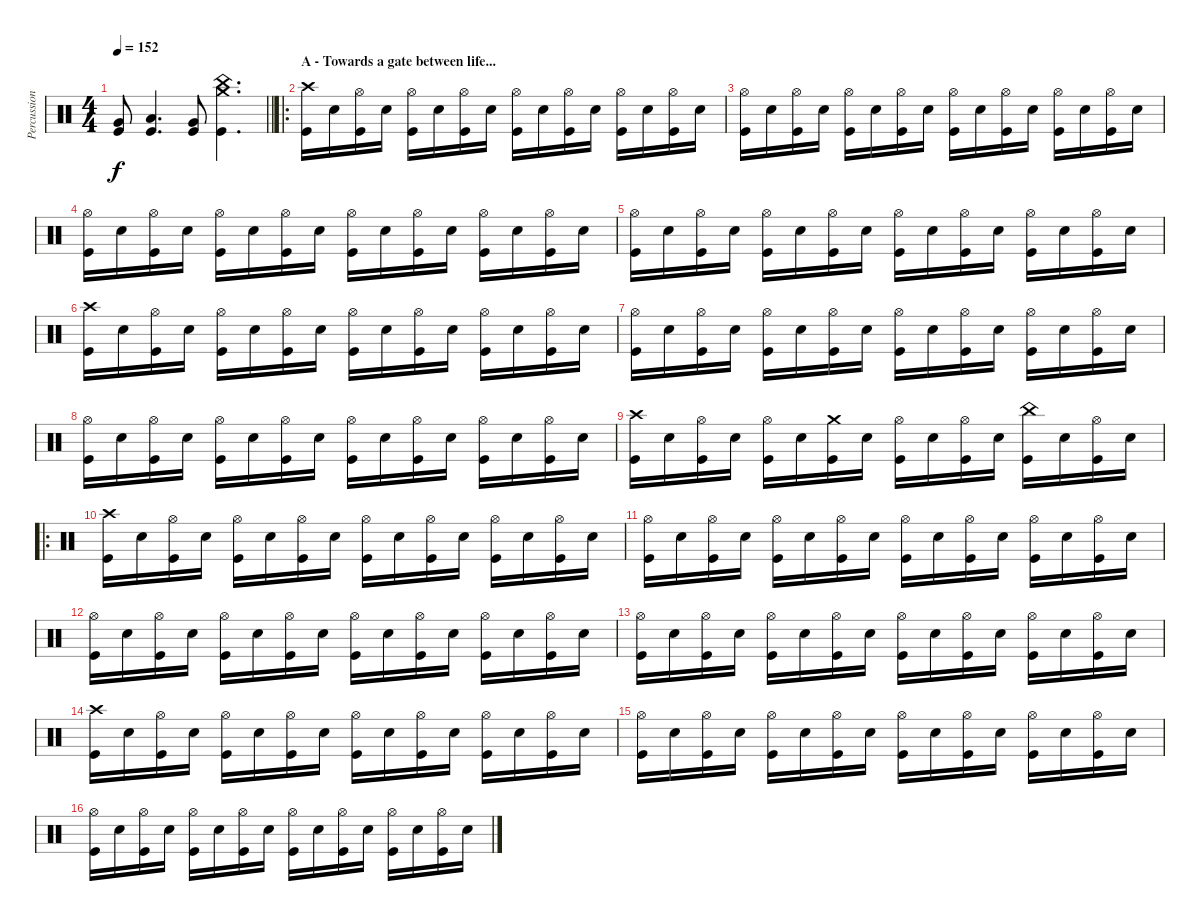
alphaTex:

\track ("Percussion" "Percussion") {instrument percussion}
\staff {score}
\articulation defaults
\ts (4 4)
\tempo 152
\clef neutral
\barLineRight lightlight
\ks c
("Very Low Tom (hit)" "Kick (hit)").8{dy f} ("Low Tom (hit)" "Kick (hit)").4{d} ("Very Low Tom (hit)" "Kick (hit)").8 ("Crash medium (hit)" "China (hit)" "Kick (hit)").4{d} |
\ro
\section ("" "A - Towards a gate between life...")
("Crash high (hit)" "Kick (hit)").16 "Snare (hit) 2".16 ("Hi-Hat (open)" "Kick (hit)").16 "Snare (hit) 2".16 ("Hi-Hat (open)" "Kick (hit)").16 "Snare (hit) 2".16 ("Hi-Hat (open)" "Kick (hit)").16 "Snare (hit) 2".16 ("Hi-Hat (open)" "Kick (hit)").16 "Snare (hit) 2".16 ("Hi-Hat (open)" "Kick (hit)").16 "Snare (hit) 2".16 ("Hi-Hat (open)" "Kick (hit)").16 "Snare (hit) 2".16 ("Hi-Hat (open)" "Kick (hit)").16 "Snare (hit) 2".16 |
("Hi-Hat (open)" "Kick (hit)").16 "Snare (hit) 2".16 ("Hi-Hat (open)" "Kick (hit)").16 "Snare (hit) 2".16 ("Hi-Hat (open)" "Kick (hit)").16 "Snare (hit) 2".16 ("Hi-Hat (open)" "Kick (hit)").16 "Snare (hit) 2".16 ("Hi-Hat (open)" "Kick (hit)").16 "Snare (hit) 2".16 ("Hi-Hat (open)" "Kick (hit)").16 "Snare (hit) 2".16 ("Hi-Hat (open)" "Kick (hit)").16 "Snare (hit) 2".16 ("Hi-Hat (open)" "Kick (hit)").16 "Snare (hit) 2".16 |
("Hi-Hat (open)" "Kick (hit)").16 "Snare (hit) 2".16 ("Hi-Hat (open)" "Kick (hit)").16 "Snare (hit) 2".16 ("Hi-Hat (open)" "Kick (hit)").16 "Snare (hit) 2".16 ("Hi-Hat (open)" "Kick (hit)").16 "Snare (hit) 2".16 ("Hi-Hat (open)" "Kick (hit)").16 "Snare (hit) 2".16 ("Hi-Hat (open)" "Kick (hit)").16 "Snare (hit) 2".16 ("Hi-Hat (open)" "Kick (hit)").16 "Snare (hit) 2".16 ("Hi-Hat (open)" "Kick (hit)").16 "Snare (hit) 2".16 |
("Hi-Hat (open)" "Kick (hit)").16 "Snare (hit) 2".16 ("Hi-Hat (open)" "Kick (hit)").16 "Snare (hit) 2".16 ("Hi-Hat (open)" "Kick (hit)").16 "Snare (hit) 2".16 ("Hi-Hat (open)" "Kick (hit)").16 "Snare (hit) 2".16 ("Hi-Hat (open)" "Kick (hit)").16 "Snare (hit) 2".16 ("Hi-Hat (open)" "Kick (hit)").16 "Snare (hit) 2".16 ("Hi-Hat (open)" "Kick (hit)").16 "Snare (hit) 2".16 ("Hi-Hat (open)" "Kick (hit)").16 "Snare (hit) 2".16 |
("Crash high (hit)" "Kick (hit)").16 "Snare (hit) 2".16 ("Hi-Hat (open)" "Kick (hit)").16 "Snare (hit) 2".16 ("Hi-Hat (open)" "Kick (hit)").16 "Snare (hit) 2".16 ("Hi-Hat (open)" "Kick (hit)").16 "Snare (hit) 2".16 ("Hi-Hat (open)" "Kick (hit)").16 "Snare (hit) 2".16 ("Hi-Hat (open)" "Kick (hit)").16 "Snare (hit) 2".16 ("Hi-Hat (open)" "Kick (hit)").16 "Snare (hit) 2".16 ("Hi-Hat (open)" "Kick (hit)").16 "Snare (hit) 2".16 |
("Hi-Hat (open)" "Kick (hit)").16 "Snare (hit) 2".16 ("Hi-Hat (open)" "Kick (hit)").16 "Snare (hit) 2".16 ("Hi-Hat (open)" "Kick (hit)").16 "Snare (hit) 2".16 ("Hi-Hat (open)" "Kick (hit)").16 "Snare (hit) 2".16 ("Hi-Hat (open)" "Kick (hit)").16 "Snare (hit) 2".16 ("Hi-Hat (open)" "Kick (hit)").16 "Snare (hit) 2".16 ("Hi-Hat (open)" "Kick (hit)").16 "Snare (hit) 2".16 ("Hi-Hat (open)" "Kick (hit)").16 "Snare (hit) 2".16 |
("Hi-Hat (open)" "Kick (hit)").16 "Snare (hit) 2".16 ("Hi-Hat (open)" "Kick (hit)").16 "Snare (hit) 2".16 ("Hi-Hat (open)" "Kick (hit)").16 "Snare (hit) 2".16 ("Hi-Hat (open)" "Kick (hit)").16 "Snare (hit) 2".16 ("Hi-Hat (open)" "Kick (hit)").16 "Snare (hit) 2".16 ("Hi-Hat (open)" "Kick (hit)").16 "Snare (hit) 2".16 ("Hi-Hat (open)" "Kick (hit)").16 "Snare (hit) 2".16 ("Hi-Hat (open)" "Kick (hit)").16 "Snare (hit) 2".16 |
("Crash high (hit)" "Kick (hit)").16 "Snare (hit) 2".16 ("Hi-Hat (open)" "Kick (hit)").16 "Snare (hit) 2".16 ("Hi-Hat (open)" "Kick (hit)").16 "Snare (hit) 2".16 ("Crash medium (hit)" "Kick (hit)").16 "Snare (hit) 2".16 ("Hi-Hat (open)" "Kick (hit)").16 "Snare (hit) 2".16 ("Hi-Hat (open)" "Kick (hit)").16 "Snare (hit) 2".16 ("China (hit)" "Kick (hit)").16 "Snare (hit) 2".16 ("Hi-Hat (open)" "Kick (hit)").16 "Snare (hit) 2".16 |
\ro
("Crash high (hit)" "Kick (hit)").16 "Snare (hit) 2".16 ("Hi-Hat (open)" "Kick (hit)").16 "Snare (hit) 2".16 ("Hi-Hat (open)" "Kick (hit)").16 "Snare (hit) 2".16 ("Hi-Hat (open)" "Kick (hit)").16 "Snare (hit) 2".16 ("Hi-Hat (open)" "Kick (hit)").16 "Snare (hit) 2".16 ("Hi-Hat (open)" "Kick (hit)").16 "Snare (hit) 2".16 ("Hi-Hat (open)" "Kick (hit)").16 "Snare (hit) 2".16 ("Hi-Hat (open)" "Kick (hit)").16 "Snare (hit) 2".16 |
("Hi-Hat (open)" "Kick (hit)").16 "Snare (hit) 2".16 ("Hi-Hat (open)" "Kick (hit)").16 "Snare (hit) 2".16 ("Hi-Hat (open)" "Kick (hit)").16 "Snare (hit) 2".16 ("Hi-Hat (open)" "Kick (hit)").16 "Snare (hit) 2".16 ("Hi-Hat (open)" "Kick (hit)").16 "Snare (hit) 2".16 ("Hi-Hat (open)" "Kick (hit)").16 "Snare (hit) 2".16 ("Hi-Hat (open)" "Kick (hit)").16 "Snare (hit) 2".16 ("Hi-Hat (open)" "Kick (hit)").16 "Snare (hit) 2".16 |
("Hi-Hat (open)" "Kick (hit)").16 "Snare (hit) 2".16 ("Hi-Hat (open)" "Kick (hit)").16 "Snare (hit) 2".16 ("Hi-Hat (open)" "Kick (hit)").16 "Snare (hit) 2".16 ("Hi-Hat (open)" "Kick (hit)").16 "Snare (hit) 2".16 ("Hi-Hat (open)" "Kick (hit)").16 "Snare (hit) 2".16 ("Hi-Hat (open)" "Kick (hit)").16 "Snare (hit) 2".16 ("Hi-Hat (open)" "Kick (hit)").16 "Snare (hit) 2".16 ("Hi-Hat (open)" "Kick (hit)").16 "Snare (hit) 2".16 |
("Hi-Hat (open)" "Kick (hit)").16 "Snare (hit) 2".16 ("Hi-Hat (open)" "Kick (hit)").16 "Snare (hit) 2".16 ("Hi-Hat (open)" "Kick (hit)").16 "Snare (hit) 2".16 ("Hi-Hat (open)" "Kick (hit)").16 "Snare (hit) 2".16 ("Hi-Hat (open)" "Kick (hit)").16 "Snare (hit) 2".16 ("Hi-Hat (open)" "Kick (hit)").16 "Snare (hit) 2".16 ("Hi-Hat (open)" "Kick (hit)").16 "Snare (hit) 2".16 ("Hi-Hat (open)" "Kick (hit)").16 "Snare (hit) 2".16 |
("Crash high (hit)" "Kick (hit)").16 "Snare (hit) 2".16 ("Hi-Hat (open)" "Kick (hit)").16 "Snare (hit) 2".16 ("Hi-Hat (open)" "Kick (hit)").16 "Snare (hit) 2".16 ("Hi-Hat (open)" "Kick (hit)").16 "Snare (hit) 2".16 ("Hi-Hat (open)" "Kick (hit)").16 "Snare (hit) 2".16 ("Hi-Hat (open)" "Kick (hit)").16 "Snare (hit) 2".16 ("Hi-Hat (open)" "Kick (hit)").16 "Snare (hit) 2".16 ("Hi-Hat (open)" "Kick (hit)").16 "Snare (hit) 2".16 |
("Hi-Hat (open)" "Kick (hit)").16 "Snare (hit) 2".16 ("Hi-Hat (open)" "Kick (hit)").16 "Snare (hit) 2".16 ("Hi-Hat (open)" "Kick (hit)").16 "Snare (hit) 2".16 ("Hi-Hat (open)" "Kick (hit)").16 "Snare (hit) 2".16 ("Hi-Hat (open)" "Kick (hit)").16 "Snare (hit) 2".16 ("Hi-Hat (open)" "Kick (hit)").16 "Snare (hit) 2".16 ("Hi-Hat (open)" "Kick (hit)").16 "Snare (hit) 2".16 ("Hi-Hat (open)" "Kick (hit)").16 "Snare (hit) 2".16 |
("Hi-Hat (open)" "Kick (hit)").16 "Snare (hit) 2".16 ("Hi-Hat (open)" "Kick (hit)").16 "Snare (hit) 2".16 ("Hi-Hat (open)" "Kick (hit)").16 "Snare (hit) 2".16 ("Hi-Hat (open)" "Kick (hit)").16 "Snare (hit) 2".16 ("Hi-Hat (open)" "Kick (hit)").16 "Snare (hit) 2".16 ("Hi-Hat (open)" "Kick (hit)").16 "Snare (hit) 2".16 ("Hi-Hat (open)" "Kick (hit)").16 "Snare (hit) 2".16 ("Hi-Hat (open)" "Kick (hit)").16 "Snare (hit) 2".16
